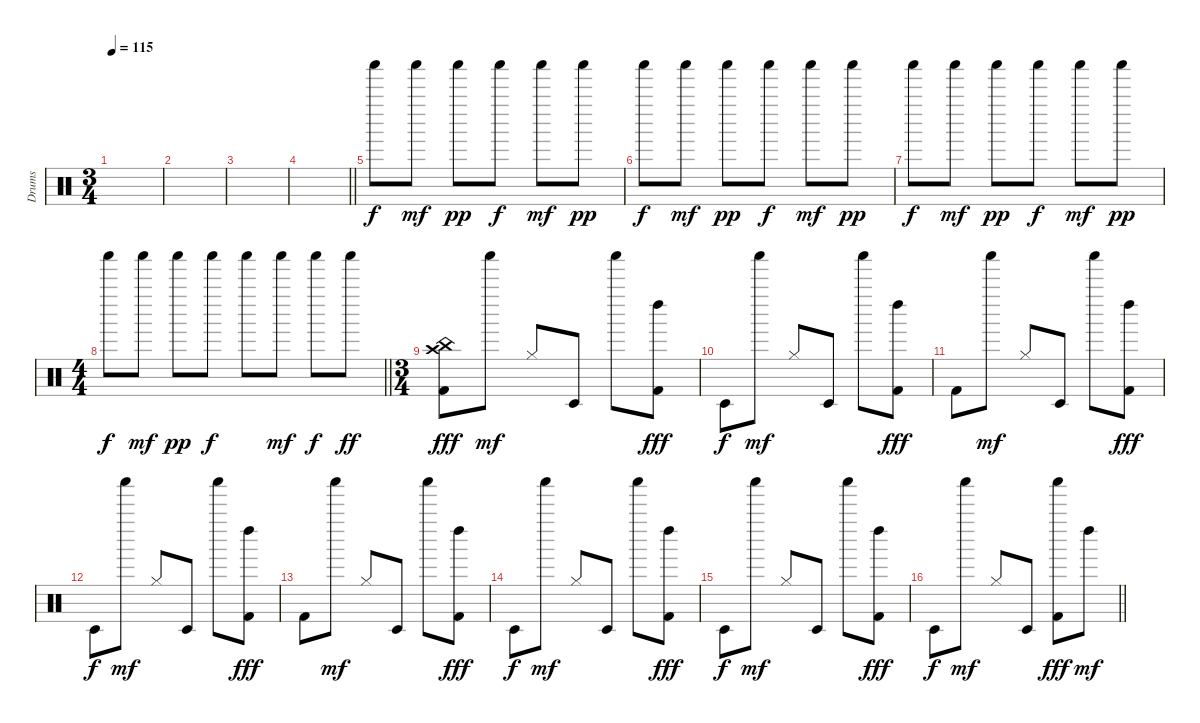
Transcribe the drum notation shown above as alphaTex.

\track ("Drums" "Drums") {instrument percussion}
\staff {score}
\articulation defaults
\ts (3 4)
\tempo 115
\clef neutral
\ks c
|
|
|
\barLineRight lightlight
|
\section ("" "")
"Shaker (hit)".8{dy f} "Shaker (hit)".8{dy mf} "Shaker (hit)".8{dy pp} "Shaker (hit)".8{dy f} "Shaker (hit)".8{dy mf} "Shaker (hit)".8{dy pp} |
"Shaker (hit)".8{dy f} "Shaker (hit)".8{dy mf} "Shaker (hit)".8{dy pp} "Shaker (hit)".8{dy f} "Shaker (hit)".8{dy mf} "Shaker (hit)".8{dy pp} |
"Shaker (hit)".8{dy f} "Shaker (hit)".8{dy mf} "Shaker (hit)".8{dy pp} "Shaker (hit)".8{dy f} "Shaker (hit)".8{dy mf} "Shaker (hit)".8{dy pp} |
\ts (4 4)
\barLineRight lightlight "Shaker (hit)".8{dy f} "Shaker (hit)".8{dy mf} "Shaker (hit)".8{dy pp} "Shaker (hit)".8{dy f} "Shaker (hit)".8 "Shaker (hit)".8{dy mf} "Shaker (hit)".8{dy f} "Shaker (hit)".8{dy ff}
|
\ts (3 4)
\section ("" "")
("China (hit)" "Crash high (hit)" "Kick (hit) 2").8{dy fff} "Shaker (hit)".8{dy mf} "Hi-Hat (closed)".8 "Timbale low (hit)".8 "Shaker (hit)".8 ("Left Maraca (hit)" "Kick (hit) 2").8{dy fff} |
"Timbale low (hit)".8{dy f} "Shaker (hit)".8{dy mf} "Hi-Hat (closed)".8 "Timbale low (hit)".8 "Shaker (hit)".8 ("Left Maraca (hit)" "Kick (hit) 2").8{dy fff} |
"Kick (hit) 2".8 "Shaker (hit)".8{dy mf} "Hi-Hat (closed)".8 "Timbale low (hit)".8 "Shaker (hit)".8 ("Left Maraca (hit)" "Kick (hit) 2").8{dy fff} |
"Timbale low (hit)".8{dy f} "Shaker (hit)".8{dy mf} "Hi-Hat (closed)".8 "Timbale low (hit)".8 "Shaker (hit)".8 ("Left Maraca (hit)" "Kick (hit) 2").8{dy fff} |
"Kick (hit) 2".8 "Shaker (hit)".8{dy mf} "Hi-Hat (closed)".8 "Timbale low (hit)".8 "Shaker (hit)".8 ("Left Maraca (hit)" "Kick (hit) 2").8{dy fff} |
"Timbale low (hit)".8{dy f} "Shaker (hit)".8{dy mf} "Hi-Hat (closed)".8 "Timbale low (hit)".8 "Shaker (hit)".8 ("Left Maraca (hit)" "Kick (hit) 2").8{dy fff} |
"Timbale low (hit)".8{dy f} "Shaker (hit)".8{dy mf} "Hi-Hat (closed)".8 "Timbale low (hit)".8 "Shaker (hit)".8 ("Left Maraca (hit)" "Kick (hit) 2").8{dy fff} |
\barLineRight lightlight "Timbale low (hit)".8{dy f} "Shaker (hit)".8{dy mf} "Hi-Hat (closed)".8 "Timbale low (hit)".8
("Shaker (hit)" "Kick (hit) 2").8{dy fff} "Left Maraca (hit)".8{dy mf}
